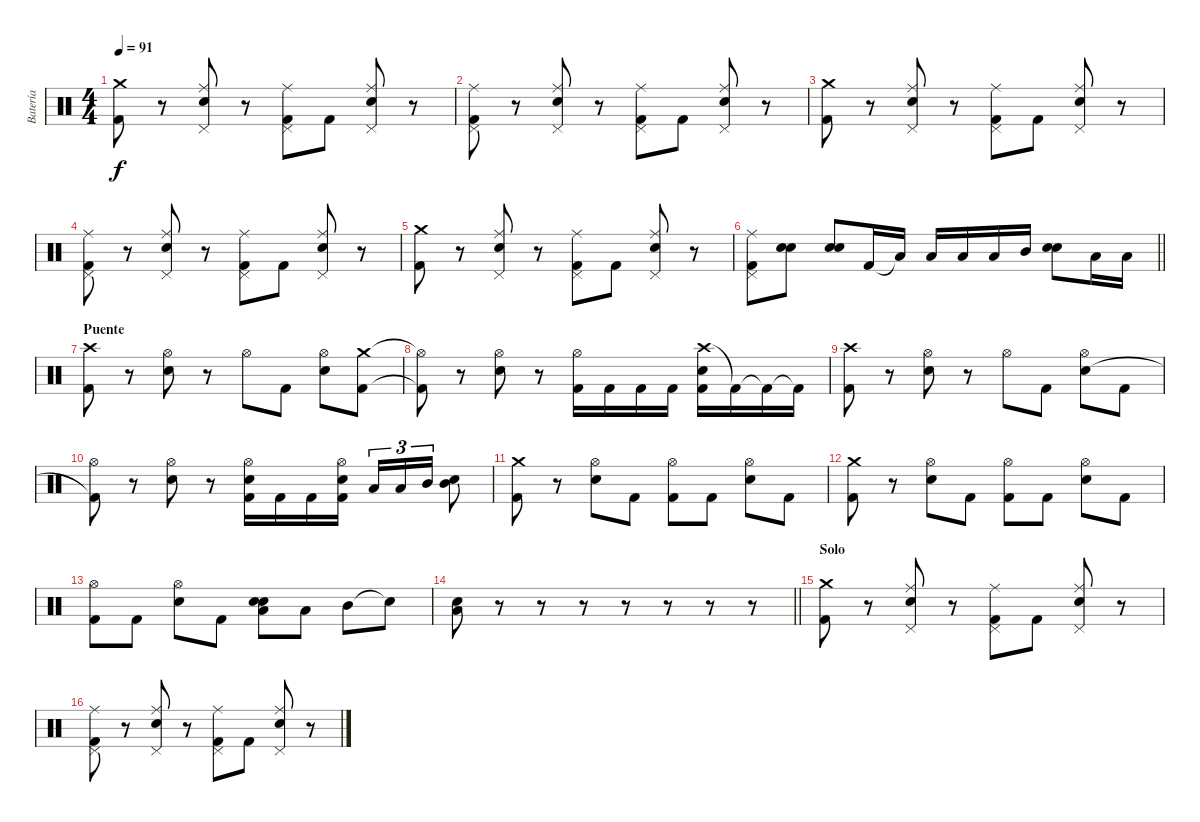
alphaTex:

\track ("Batería" "Batería") {instrument percussion}
\staff {score}
\articulation defaults
\ts (4 4)
\tempo 91
\clef neutral
\ks c
("Crash medium (hit)" "Kick (hit) 2").8{dy f} r.8 ("Pedal Hi-Hat (hit)" "Snare (hit) 2" "Ride (middle)").8 r.8 ("Pedal Hi-Hat (hit)" "Kick (hit) 2" "Ride (middle)").8 "Kick (hit) 2".8 ("Pedal Hi-Hat (hit)" "Snare (hit) 2" "Ride (middle)").8 r.8 |
("Pedal Hi-Hat (hit)" "Ride (middle)" "Kick (hit) 2").8 r.8 ("Pedal Hi-Hat (hit)" "Snare (hit) 2" "Ride (middle)").8 r.8 ("Pedal Hi-Hat (hit)" "Kick (hit) 2" "Ride (middle)").8 "Kick (hit) 2".8 ("Pedal Hi-Hat (hit)" "Snare (hit) 2" "Ride (middle)").8 r.8 |
("Crash medium (hit)" "Kick (hit) 2").8 r.8 ("Pedal Hi-Hat (hit)" "Snare (hit) 2" "Ride (middle)").8 r.8 ("Pedal Hi-Hat (hit)" "Kick (hit) 2" "Ride (middle)").8 "Kick (hit) 2".8 ("Pedal Hi-Hat (hit)" "Snare (hit) 2" "Ride (middle)").8 r.8 |
("Pedal Hi-Hat (hit)" "Ride (middle)" "Kick (hit) 2").8 r.8 ("Pedal Hi-Hat (hit)" "Snare (hit) 2" "Ride (middle)").8 r.8 ("Pedal Hi-Hat (hit)" "Kick (hit) 2" "Ride (middle)").8 "Kick (hit) 2".8 ("Pedal Hi-Hat (hit)" "Snare (hit) 2" "Ride (middle)").8 r.8 |
("Crash medium (hit)" "Kick (hit) 2").8 r.8 ("Pedal Hi-Hat (hit)" "Snare (hit) 2" "Ride (middle)").8 r.8 ("Pedal Hi-Hat (hit)" "Kick (hit) 2" "Ride (middle)").8 "Kick (hit) 2".8 ("Pedal Hi-Hat (hit)" "Snare (hit) 2" "Ride (middle)").8 r.8 |
\barLineRight lightlight
("Pedal Hi-Hat (hit)" "Ride (middle)" "Kick (hit) 2").8 ("Snare (hit) 2" "Snare (hit) 2").8{bd 60} ("Snare (hit) 2" "Snare (hit) 2").8{bd 60} "Kick (hit) 2".16 "Low Tom (hit)"{t}.16 "Low Tom (hit)".16 "Low Tom (hit)".16 "Low Tom (hit)".16 "Mid Tom (hit)".16 ("Snare (hit) 2" "Snare (hit) 2").8 "Low Tom (hit)".16 "Low Tom (hit)".16 |
\section ("" "Puente")
("Crash high (hit)" "Kick (hit) 2").8 r.8 ("Hi-Hat (open)" "Snare (hit) 2").8 r.8 "Hi-Hat (open)".8 "Kick (hit) 2".8 ("Hi-Hat (open)" "Snare (hit) 2").8 ("Crash medium (hit)" "Kick (hit) 2").8 |
("Hi-Hat (open)"{t} "Kick (hit) 2"{t}).8 r.8 ("Hi-Hat (open)" "Snare (hit) 2").8 r.8 ("Hi-Hat (open)" "Kick (hit) 2").16 "Kick (hit) 2".16 "Kick (hit) 2".16 "Kick (hit) 2".16 ("Crash high (hit)" "Kick (hit) 2" "Snare (hit) 2").16 "Kick (hit) 2"{t}.16 "Kick (hit) 2"{t}.16 "Kick (hit) 2"{t}.16 |
("Crash high (hit)" "Kick (hit) 2").8 r.8 ("Hi-Hat (open)" "Snare (hit) 2").8 r.8 "Hi-Hat (open)".8 "Kick (hit) 2".8 ("Hi-Hat (open)" "Snare (hit) 2").8 "Kick (hit) 2".8 |
("Hi-Hat (open)" "Kick (hit) 2"{t}).8 r.8 ("Hi-Hat (open)" "Snare (hit) 2").8 r.8 ("Snare (hit) 2" "Hi-Hat (open)" "Kick (hit) 2").16 "Kick (hit) 2".16 "Kick (hit) 2".16 ("Snare (hit) 2" "Hi-Hat (open)" "Kick (hit) 2").16 "Low Tom (hit)".16{tu (3 2)} "Low Tom (hit)".16{tu (3 2)} "Mid Tom (hit)".16{tu (3 2)} ("Mid Tom (hit)" "Snare (hit) 2").8 |
("Crash medium (hit)" "Kick (hit) 2").8 r.8 ("Hi-Hat (open)" "Snare (hit) 2").8 "Kick (hit) 2".8 ("Hi-Hat (open)" "Kick (hit) 2").8 "Kick (hit) 2".8 ("Hi-Hat (open)" "Snare (hit) 2").8 "Kick (hit) 2".8 |
("Crash medium (hit)" "Kick (hit) 2").8 r.8 ("Hi-Hat (open)" "Snare (hit) 2").8 "Kick (hit) 2".8 ("Hi-Hat (open)" "Kick (hit) 2").8 "Kick (hit) 2".8 ("Hi-Hat (open)" "Snare (hit) 2").8 "Kick (hit) 2".8 |
("Hi-Hat (open)" "Kick (hit) 2").8 "Kick (hit) 2".8 ("Hi-Hat (open)" "Snare (hit) 2").8 "Kick (hit) 2".8 ("Snare (hit) 2" "Snare (hit) 2" "Low Tom (hit)").8{bd 30} "Low Tom (hit)".8 "Mid Tom (hit)".8 "Snare (hit)"{t}.8 |
\barLineRight lightlight
("Low Tom (hit)" "Snare (hit) 2").8 r.8 r.8 r.8 r.8 r.8 r.8 r.8 |
\section ("" "Solo")
("Crash medium (hit)" "Kick (hit) 2").8 r.8 ("Pedal Hi-Hat (hit)" "Snare (hit) 2" "Ride (middle)").8 r.8 ("Pedal Hi-Hat (hit)" "Kick (hit) 2" "Ride (middle)").8 "Kick (hit) 2".8 ("Pedal Hi-Hat (hit)" "Snare (hit) 2" "Ride (middle)").8 r.8 |
("Pedal Hi-Hat (hit)" "Ride (middle)" "Kick (hit) 2").8 r.8 ("Pedal Hi-Hat (hit)" "Snare (hit) 2" "Ride (middle)").8 r.8 ("Pedal Hi-Hat (hit)" "Kick (hit) 2" "Ride (middle)").8 "Kick (hit) 2".8 ("Pedal Hi-Hat (hit)" "Snare (hit) 2" "Ride (middle)").8 r.8
